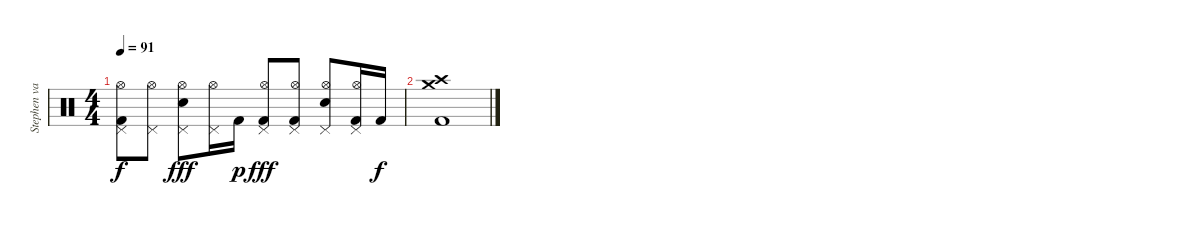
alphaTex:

\track ("Stephen van Haestregt" "Stephen va") {instrument percussion}
\staff {score}
\articulation defaults
\ts (4 4)
\tempo 91
\clef neutral
\ks c
("Pedal Hi-Hat (hit)" "Hi-Hat (open)" "Kick (hit) 2").8{dy f} ("Pedal Hi-Hat (hit)" "Hi-Hat (open)").8 ("Pedal Hi-Hat (hit)" "Hi-Hat (open)" "Electric Snare (hit)").8{dy fff} ("Pedal Hi-Hat (hit)" "Hi-Hat (open)").16 "Kick (hit) 2".16{dy p} ("Pedal Hi-Hat (hit)" "Hi-Hat (open)" "Kick (hit) 2").8{dy fff} ("Pedal Hi-Hat (hit)" "Hi-Hat (open)" "Kick (hit) 2").8 ("Pedal Hi-Hat (hit)" "Hi-Hat (open)" "Electric Snare (hit)").8 ("Pedal Hi-Hat (hit)" "Hi-Hat (open)" "Kick (hit) 2").16 "Kick (hit) 2".16{dy f} |
("Crash high (hit)" "Crash medium (hit)" "Kick (hit) 2").1
